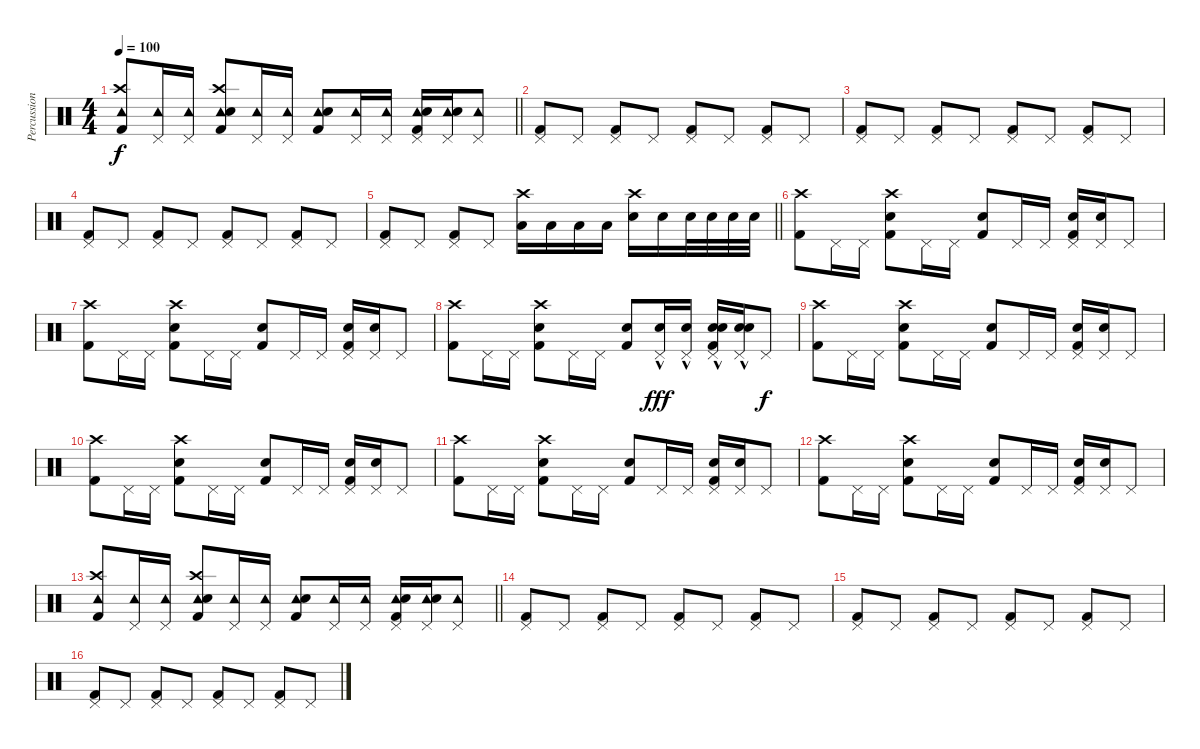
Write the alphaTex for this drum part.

\track ("Percussion" "Percussion") {instrument percussion}
\staff {score}
\articulation defaults
\ts (4 4)
\tempo 100
\clef neutral
\barLineRight lightlight
\ks c
("Tambourine (hit)" "Crash high (hit)" "Kick (hit) 2").8{dy f} ("Pedal Hi-Hat (hit)" "Tambourine (hit)").16 ("Pedal Hi-Hat (hit)" "Tambourine (hit)").16 ("Tambourine (hit)" "Electric Snare (hit)" "Crash high (hit)" "Kick (hit) 2").8 ("Pedal Hi-Hat (hit)" "Tambourine (hit)").16 ("Pedal Hi-Hat (hit)" "Tambourine (hit)").16 ("Tambourine (hit)" "Electric Snare (hit)" "Kick (hit) 2").8 ("Pedal Hi-Hat (hit)" "Tambourine (hit)").16 ("Pedal Hi-Hat (hit)" "Tambourine (hit)").16 ("Pedal Hi-Hat (hit)" "Tambourine (hit)" "Electric Snare (hit)" "Kick (hit) 2").16 ("Pedal Hi-Hat (hit)" "Tambourine (hit)" "Electric Snare (hit)").16 ("Pedal Hi-Hat (hit)" "Tambourine (hit)").8 |
("Pedal Hi-Hat (hit)" "Kick (hit) 2").8 "Pedal Hi-Hat (hit)".8 ("Pedal Hi-Hat (hit)" "Kick (hit) 2").8 "Pedal Hi-Hat (hit)".8 ("Pedal Hi-Hat (hit)" "Kick (hit) 2").8 "Pedal Hi-Hat (hit)".8 ("Pedal Hi-Hat (hit)" "Kick (hit) 2").8 "Pedal Hi-Hat (hit)".8 |
("Pedal Hi-Hat (hit)" "Kick (hit) 2").8 "Pedal Hi-Hat (hit)".8 ("Pedal Hi-Hat (hit)" "Kick (hit) 2").8 "Pedal Hi-Hat (hit)".8 ("Pedal Hi-Hat (hit)" "Kick (hit) 2").8 "Pedal Hi-Hat (hit)".8 ("Pedal Hi-Hat (hit)" "Kick (hit) 2").8 "Pedal Hi-Hat (hit)".8 |
("Pedal Hi-Hat (hit)" "Kick (hit) 2").8 "Pedal Hi-Hat (hit)".8 ("Pedal Hi-Hat (hit)" "Kick (hit) 2").8 "Pedal Hi-Hat (hit)".8 ("Pedal Hi-Hat (hit)" "Kick (hit) 2").8 "Pedal Hi-Hat (hit)".8 ("Pedal Hi-Hat (hit)" "Kick (hit) 2").8 "Pedal Hi-Hat (hit)".8 |
\barLineRight lightlight
("Pedal Hi-Hat (hit)" "Kick (hit) 2").8 "Pedal Hi-Hat (hit)".8 ("Pedal Hi-Hat (hit)" "Kick (hit) 2").8 "Pedal Hi-Hat (hit)".8 ("Low Tom (hit)" "Crash high (hit)").16 "Low Tom (hit)".16 "Low Tom (hit)".16 "Low Tom (hit)".16 ("Crash high (hit)" "Electric Snare (hit)").16 "Electric Snare (hit)".16 "Electric Snare (hit)".32 "Electric Snare (hit)".32 "Electric Snare (hit)".32 "Electric Snare (hit)".32 |
("Crash high (hit)" "Kick (hit) 2").8 "Pedal Hi-Hat (hit)".16 "Pedal Hi-Hat (hit)".16 ("Electric Snare (hit)" "Crash high (hit)" "Kick (hit) 2").8 "Pedal Hi-Hat (hit)".16 "Pedal Hi-Hat (hit)".16 ("Electric Snare (hit)" "Kick (hit) 2").8 "Pedal Hi-Hat (hit)".16 "Pedal Hi-Hat (hit)".16 ("Pedal Hi-Hat (hit)" "Electric Snare (hit)" "Kick (hit) 2").16 ("Pedal Hi-Hat (hit)" "Electric Snare (hit)").16 "Pedal Hi-Hat (hit)".8 |
("Crash high (hit)" "Kick (hit) 2").8 "Pedal Hi-Hat (hit)".16 "Pedal Hi-Hat (hit)".16 ("Electric Snare (hit)" "Crash high (hit)" "Kick (hit) 2").8 "Pedal Hi-Hat (hit)".16 "Pedal Hi-Hat (hit)".16 ("Electric Snare (hit)" "Kick (hit) 2").8 "Pedal Hi-Hat (hit)".16 "Pedal Hi-Hat (hit)".16 ("Pedal Hi-Hat (hit)" "Electric Snare (hit)" "Kick (hit) 2").16 ("Pedal Hi-Hat (hit)" "Electric Snare (hit)").16 "Pedal Hi-Hat (hit)".8 |
("Crash high (hit)" "Kick (hit) 2").8 "Pedal Hi-Hat (hit)".16 "Pedal Hi-Hat (hit)".16 ("Electric Snare (hit)" "Crash high (hit)" "Kick (hit) 2").8 "Pedal Hi-Hat (hit)".16 "Pedal Hi-Hat (hit)".16 ("Electric Snare (hit)" "Kick (hit) 2").8 ("Pedal Hi-Hat (hit)" "Electric Snare (hit)"{hac}).16{dy fff} ("Pedal Hi-Hat (hit)" "Electric Snare (hit)"{hac}).16 ("Pedal Hi-Hat (hit)" "Electric Snare (hit)"{hac} "Electric Snare (hit)" "Kick (hit) 2").16 ("Pedal Hi-Hat (hit)" "Electric Snare (hit)"{hac} "Electric Snare (hit)").16 "Pedal Hi-Hat (hit)".8{dy f} |
("Crash high (hit)" "Kick (hit) 2").8 "Pedal Hi-Hat (hit)".16 "Pedal Hi-Hat (hit)".16 ("Electric Snare (hit)" "Crash high (hit)" "Kick (hit) 2").8 "Pedal Hi-Hat (hit)".16 "Pedal Hi-Hat (hit)".16 ("Electric Snare (hit)" "Kick (hit) 2").8 "Pedal Hi-Hat (hit)".16 "Pedal Hi-Hat (hit)".16 ("Pedal Hi-Hat (hit)" "Electric Snare (hit)" "Kick (hit) 2").16 ("Pedal Hi-Hat (hit)" "Electric Snare (hit)").16 "Pedal Hi-Hat (hit)".8 |
("Crash high (hit)" "Kick (hit) 2").8 "Pedal Hi-Hat (hit)".16 "Pedal Hi-Hat (hit)".16 ("Electric Snare (hit)" "Crash high (hit)" "Kick (hit) 2").8 "Pedal Hi-Hat (hit)".16 "Pedal Hi-Hat (hit)".16 ("Electric Snare (hit)" "Kick (hit) 2").8 "Pedal Hi-Hat (hit)".16 "Pedal Hi-Hat (hit)".16 ("Pedal Hi-Hat (hit)" "Electric Snare (hit)" "Kick (hit) 2").16 ("Pedal Hi-Hat (hit)" "Electric Snare (hit)").16 "Pedal Hi-Hat (hit)".8 |
("Crash high (hit)" "Kick (hit) 2").8 "Pedal Hi-Hat (hit)".16 "Pedal Hi-Hat (hit)".16 ("Electric Snare (hit)" "Crash high (hit)" "Kick (hit) 2").8 "Pedal Hi-Hat (hit)".16 "Pedal Hi-Hat (hit)".16 ("Electric Snare (hit)" "Kick (hit) 2").8 "Pedal Hi-Hat (hit)".16 "Pedal Hi-Hat (hit)".16 ("Pedal Hi-Hat (hit)" "Electric Snare (hit)" "Kick (hit) 2").16 ("Pedal Hi-Hat (hit)" "Electric Snare (hit)").16 "Pedal Hi-Hat (hit)".8 |
("Crash high (hit)" "Kick (hit) 2").8 "Pedal Hi-Hat (hit)".16 "Pedal Hi-Hat (hit)".16 ("Electric Snare (hit)" "Crash high (hit)" "Kick (hit) 2").8 "Pedal Hi-Hat (hit)".16 "Pedal Hi-Hat (hit)".16 ("Electric Snare (hit)" "Kick (hit) 2").8 "Pedal Hi-Hat (hit)".16 "Pedal Hi-Hat (hit)".16 ("Pedal Hi-Hat (hit)" "Electric Snare (hit)" "Kick (hit) 2").16 ("Pedal Hi-Hat (hit)" "Electric Snare (hit)").16 "Pedal Hi-Hat (hit)".8 |
\barLineRight lightlight
("Tambourine (hit)" "Crash high (hit)" "Kick (hit) 2").8 ("Pedal Hi-Hat (hit)" "Tambourine (hit)").16 ("Pedal Hi-Hat (hit)" "Tambourine (hit)").16 ("Tambourine (hit)" "Electric Snare (hit)" "Crash high (hit)" "Kick (hit) 2").8 ("Pedal Hi-Hat (hit)" "Tambourine (hit)").16 ("Pedal Hi-Hat (hit)" "Tambourine (hit)").16 ("Tambourine (hit)" "Electric Snare (hit)" "Kick (hit) 2").8 ("Pedal Hi-Hat (hit)" "Tambourine (hit)").16 ("Pedal Hi-Hat (hit)" "Tambourine (hit)").16 ("Pedal Hi-Hat (hit)" "Tambourine (hit)" "Electric Snare (hit)" "Kick (hit) 2").16 ("Pedal Hi-Hat (hit)" "Tambourine (hit)" "Electric Snare (hit)").16 ("Pedal Hi-Hat (hit)" "Tambourine (hit)").8 |
("Pedal Hi-Hat (hit)" "Kick (hit) 2").8 "Pedal Hi-Hat (hit)".8 ("Pedal Hi-Hat (hit)" "Kick (hit) 2").8 "Pedal Hi-Hat (hit)".8 ("Pedal Hi-Hat (hit)" "Kick (hit) 2").8 "Pedal Hi-Hat (hit)".8 ("Pedal Hi-Hat (hit)" "Kick (hit) 2").8 "Pedal Hi-Hat (hit)".8 |
("Pedal Hi-Hat (hit)" "Kick (hit) 2").8 "Pedal Hi-Hat (hit)".8 ("Pedal Hi-Hat (hit)" "Kick (hit) 2").8 "Pedal Hi-Hat (hit)".8 ("Pedal Hi-Hat (hit)" "Kick (hit) 2").8 "Pedal Hi-Hat (hit)".8 ("Pedal Hi-Hat (hit)" "Kick (hit) 2").8 "Pedal Hi-Hat (hit)".8 |
("Pedal Hi-Hat (hit)" "Kick (hit) 2").8 "Pedal Hi-Hat (hit)".8 ("Pedal Hi-Hat (hit)" "Kick (hit) 2").8 "Pedal Hi-Hat (hit)".8 ("Pedal Hi-Hat (hit)" "Kick (hit) 2").8 "Pedal Hi-Hat (hit)".8 ("Pedal Hi-Hat (hit)" "Kick (hit) 2").8 "Pedal Hi-Hat (hit)".8
